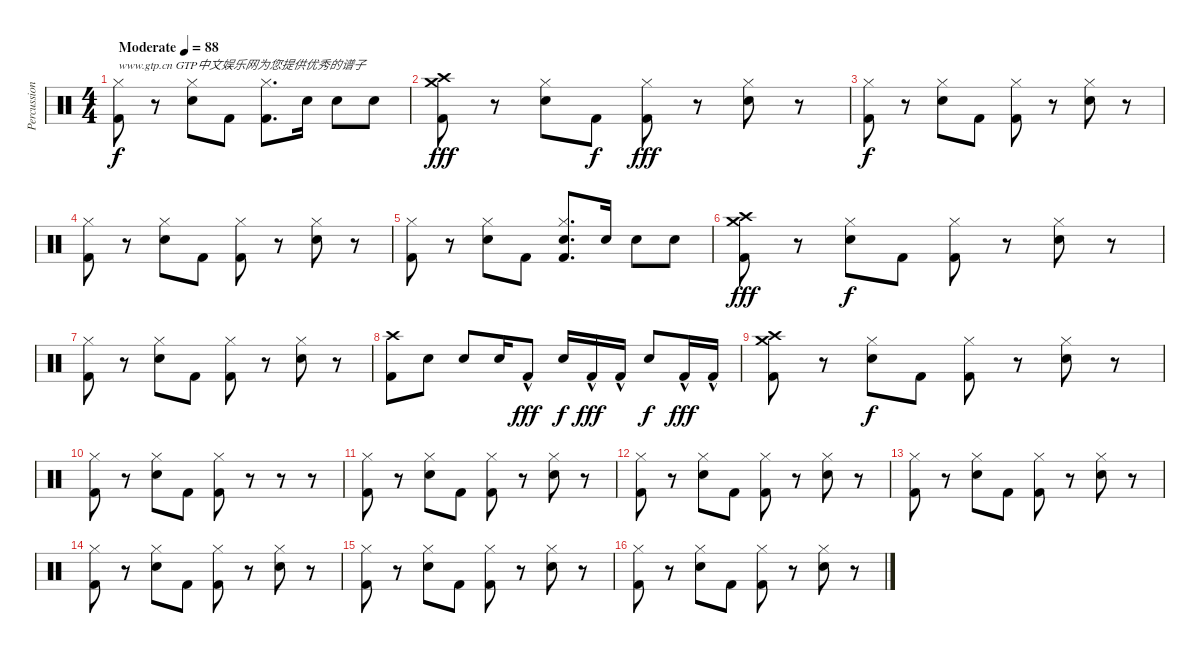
\track ("Percussion" "Percussion") {instrument percussion}
\staff {score}
\articulation defaults
\ts (4 4)
\tempo (88 "Moderate")
\clef neutral
\ks c
("Kick (hit) 2" "Hi-Hat (closed)").8{txt "www.gtp.cn GTP中文娱乐网为您提供优秀的谱子" dy f} r.8 ("Snare (hit) 2" "Hi-Hat (closed)").8 "Kick (hit) 2".8 ("Kick (hit) 2" "Hi-Hat (closed)").8{d} "Snare (hit) 2".16 "Snare (hit) 2".8 "Snare (hit) 2".8 |
("Kick (hit) 2" "Crash medium (hit)" "Crash high (hit)").8{dy fff} r.8 ("Snare (hit) 2" "Hi-Hat (closed)").8 "Kick (hit) 2".8{dy f} ("Kick (hit) 2" "Hi-Hat (closed)").8{dy fff} r.8 ("Snare (hit) 2" "Hi-Hat (closed)").8 r.8 |
("Kick (hit) 2" "Hi-Hat (closed)").8{dy f} r.8 ("Snare (hit) 2" "Hi-Hat (closed)").8 "Kick (hit) 2".8 ("Kick (hit) 2" "Hi-Hat (closed)").8 r.8 ("Snare (hit) 2" "Hi-Hat (closed)").8 r.8 |
("Kick (hit) 2" "Hi-Hat (closed)").8 r.8 ("Snare (hit) 2" "Hi-Hat (closed)").8 "Kick (hit) 2".8 ("Kick (hit) 2" "Hi-Hat (closed)").8 r.8 ("Snare (hit) 2" "Hi-Hat (closed)").8 r.8 |
("Kick (hit) 2" "Hi-Hat (closed)").8 r.8 ("Snare (hit) 2" "Hi-Hat (closed)").8 "Kick (hit) 2".8 ("Kick (hit) 2" "Snare (hit) 2" "Hi-Hat (closed)").8{d} "Snare (hit) 2".16 "Snare (hit) 2".8 "Snare (hit) 2".8 |
("Kick (hit) 2" "Crash medium (hit)" "Crash high (hit)").8{dy fff} r.8 ("Snare (hit) 2" "Hi-Hat (closed)").8{dy f} "Kick (hit) 2".8 ("Kick (hit) 2" "Hi-Hat (closed)").8 r.8 ("Snare (hit) 2" "Hi-Hat (closed)").8 r.8 |
("Kick (hit) 2" "Hi-Hat (closed)").8 r.8 ("Snare (hit) 2" "Hi-Hat (closed)").8 "Kick (hit) 2".8 ("Kick (hit) 2" "Hi-Hat (closed)").8 r.8 ("Snare (hit) 2" "Hi-Hat (closed)").8 r.8 |
("Crash high (hit)" "Kick (hit) 2").8 "Electric Snare (hit)".8 "Electric Snare (hit)".8 "Electric Snare (hit)".16 "Kick (hit) 2"{hac}.8{dy fff} "Electric Snare (hit)".16{dy f} "Kick (hit) 2"{hac}.16{dy fff} "Kick (hit) 2"{hac}.16 "Electric Snare (hit)".8{dy f} "Kick (hit) 2"{hac}.16{dy fff} "Kick (hit) 2"{hac}.16 |
("Kick (hit) 2" "Crash medium (hit)" "Crash high (hit)").8 r.8 ("Snare (hit) 2" "Hi-Hat (closed)").8{dy f} "Kick (hit) 2".8 ("Kick (hit) 2" "Hi-Hat (closed)").8 r.8 ("Snare (hit) 2" "Hi-Hat (closed)").8 r.8 |
("Kick (hit) 2" "Hi-Hat (closed)").8 r.8 ("Snare (hit) 2" "Hi-Hat (closed)").8 "Kick (hit) 2".8 ("Kick (hit) 2" "Hi-Hat (closed)").8 r.8 r.8 r.8 |
("Kick (hit) 2" "Hi-Hat (closed)").8 r.8 ("Snare (hit) 2" "Hi-Hat (closed)").8 "Kick (hit) 2".8 ("Kick (hit) 2" "Hi-Hat (closed)").8 r.8 ("Snare (hit) 2" "Hi-Hat (closed)").8 r.8 |
("Kick (hit) 2" "Hi-Hat (closed)").8 r.8 ("Snare (hit) 2" "Hi-Hat (closed)").8 "Kick (hit) 2".8 ("Kick (hit) 2" "Hi-Hat (closed)").8 r.8 ("Snare (hit) 2" "Hi-Hat (closed)").8 r.8 |
("Kick (hit) 2" "Hi-Hat (closed)").8 r.8 ("Snare (hit) 2" "Hi-Hat (closed)").8 "Kick (hit) 2".8 ("Kick (hit) 2" "Hi-Hat (closed)").8 r.8 ("Snare (hit) 2" "Hi-Hat (closed)").8 r.8 |
("Kick (hit) 2" "Hi-Hat (closed)").8 r.8 ("Snare (hit) 2" "Hi-Hat (closed)").8 "Kick (hit) 2".8 ("Kick (hit) 2" "Hi-Hat (closed)").8 r.8 ("Snare (hit) 2" "Hi-Hat (closed)").8 r.8 |
("Kick (hit) 2" "Hi-Hat (closed)").8 r.8 ("Snare (hit) 2" "Hi-Hat (closed)").8 "Kick (hit) 2".8 ("Kick (hit) 2" "Hi-Hat (closed)").8 r.8 ("Snare (hit) 2" "Hi-Hat (closed)").8 r.8 |
("Kick (hit) 2" "Hi-Hat (closed)").8 r.8 ("Snare (hit) 2" "Hi-Hat (closed)").8 "Kick (hit) 2".8 ("Kick (hit) 2" "Hi-Hat (closed)").8 r.8 ("Snare (hit) 2" "Hi-Hat (closed)").8 r.8
